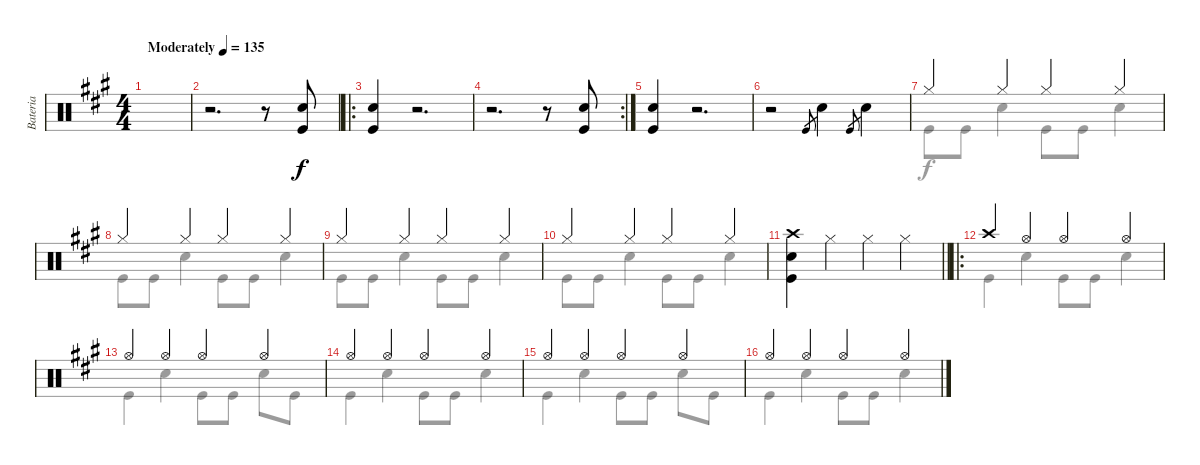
\track ("Bateria" "Bateria") {instrument percussion}
\staff {score}
\articulation defaults
\voice
\ts (4 4)
\tempo (135 "Moderately")
\clef neutral
\ks a
|
r.2{d} r.8 ("Snare (hit) 2" "Kick (hit)").8 |
\ro
("Snare (hit) 2" "Kick (hit)").4 r.2{d} |
\rc 2
r.2{d} r.8 ("Snare (hit) 2" "Kick (hit)").8 |
("Snare (hit) 2" "Kick (hit)").4 r.2{d} |
r.2 "Kick (hit)".8{gr} "Snare (hit) 2".4 "Kick (hit)".8{gr} "Snare (hit) 2".4 |
"Hi-Hat (closed)".4 "Hi-Hat (closed)".4 "Hi-Hat (closed)".4 "Hi-Hat (closed)".4 |
"Hi-Hat (closed)".4 "Hi-Hat (closed)".4 "Hi-Hat (closed)".4 "Hi-Hat (closed)".4 |
"Hi-Hat (closed)".4 "Hi-Hat (closed)".4 "Hi-Hat (closed)".4 "Hi-Hat (closed)".4 |
"Hi-Hat (closed)".4 "Hi-Hat (closed)".4 "Hi-Hat (closed)".4 "Hi-Hat (closed)".4 |
\barLineRight lightlight
("Crash high (hit)" "Snare (hit) 2" "Kick (hit)").4 "Hi-Hat (closed)".4 "Hi-Hat (closed)".4 "Hi-Hat (closed)".4 |
\ro "Crash high (hit)".4 "Hi-Hat (open)".4 "Hi-Hat (open)".4 "Hi-Hat (open)".4
|
"Hi-Hat (open)".4 "Hi-Hat (open)".4 "Hi-Hat (open)".4 "Hi-Hat (open)".4 |
"Hi-Hat (open)".4 "Hi-Hat (open)".4 "Hi-Hat (open)".4 "Hi-Hat (open)".4 |
"Hi-Hat (open)".4 "Hi-Hat (open)".4 "Hi-Hat (open)".4 "Hi-Hat (open)".4 |
"Hi-Hat (open)".4 "Hi-Hat (open)".4 "Hi-Hat (open)".4 "Hi-Hat (open)".4
\voice
\clef neutral
\ottava regular
\simile none
\ks a
|
|
|
|
|
|
"Kick (hit)".8 "Kick (hit)".8 "Snare (hit) 2".4 "Kick (hit)".8 "Kick (hit)".8 "Snare (hit) 2".4 |
"Kick (hit)".8 "Kick (hit)".8 "Snare (hit) 2".4 "Kick (hit)".8 "Kick (hit)".8 "Snare (hit) 2".4 |
"Kick (hit)".8 "Kick (hit)".8 "Snare (hit) 2".4 "Kick (hit)".8 "Kick (hit)".8 "Snare (hit) 2".4 |
"Kick (hit)".8 "Kick (hit)".8 "Snare (hit) 2".4 "Kick (hit)".8 "Kick (hit)".8 "Snare (hit) 2".4 |
\barLineRight lightlight
|
"Kick (hit)".4 "Snare (hit) 2".4 "Kick (hit)".8 "Kick (hit)".8 "Snare (hit) 2".4 |
"Kick (hit)".4 "Snare (hit) 2".4 "Kick (hit)".8 "Kick (hit)".8 "Snare (hit) 2".8 "Kick (hit)".8 |
"Kick (hit)".4 "Snare (hit) 2".4 "Kick (hit)".8 "Kick (hit)".8 "Snare (hit) 2".4 |
"Kick (hit)".4 "Snare (hit) 2".4 "Kick (hit)".8 "Kick (hit)".8 "Snare (hit) 2".8 "Kick (hit)".8 |
"Kick (hit)".4 "Snare (hit) 2".4 "Kick (hit)".8 "Kick (hit)".8 "Snare (hit) 2".4
